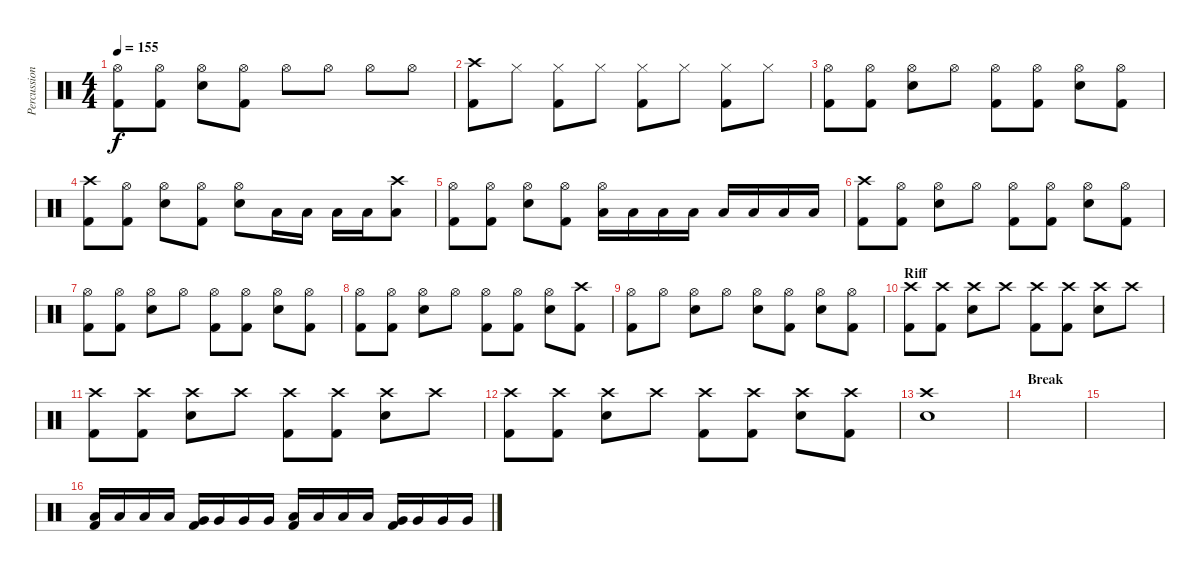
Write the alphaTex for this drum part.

\track ("Percussion" "Percussion") {instrument percussion}
\staff {score}
\articulation defaults
\ts (4 4)
\tempo 155
\clef neutral
\ks c
("Hi-Hat (open)" "Kick (hit) 2").8{dy f} ("Hi-Hat (open)" "Kick (hit) 2").8 ("Hi-Hat (open)" "Snare (hit) 2").8 ("Hi-Hat (open)" "Kick (hit) 2").8 "Hi-Hat (open)".8 "Hi-Hat (open)".8 "Hi-Hat (open)".8 "Hi-Hat (open)".8 |
("Crash high (hit)" "Kick (hit) 2").8 "Hi-Hat (closed)".8 ("Hi-Hat (closed)" "Kick (hit) 2").8 "Hi-Hat (closed)".8 ("Hi-Hat (closed)" "Kick (hit) 2").8 "Hi-Hat (closed)".8 ("Hi-Hat (closed)" "Kick (hit) 2").8 "Hi-Hat (closed)".8 |
("Hi-Hat (open)" "Kick (hit) 2").8 ("Hi-Hat (open)" "Kick (hit) 2").8 ("Hi-Hat (open)" "Snare (hit) 2").8 "Hi-Hat (open)".8 ("Hi-Hat (open)" "Kick (hit) 2").8 ("Hi-Hat (open)" "Kick (hit) 2").8 ("Hi-Hat (open)" "Snare (hit) 2").8 ("Hi-Hat (open)" "Kick (hit) 2").8 |
("Crash high (hit)" "Kick (hit) 2").8 ("Hi-Hat (open)" "Kick (hit) 2").8 ("Hi-Hat (open)" "Snare (hit) 2").8 ("Hi-Hat (open)" "Kick (hit) 2").8 ("Hi-Hat (open)" "Snare (hit) 2").8 "Low Tom (hit)".16 "Low Tom (hit)".16 "Low Tom (hit)".16 "Low Tom (hit)".16 ("Crash high (hit)" "Low Tom (hit)").8 |
("Hi-Hat (open)" "Kick (hit) 2").8 ("Hi-Hat (open)" "Kick (hit) 2").8 ("Hi-Hat (open)" "Snare (hit) 2").8 ("Hi-Hat (open)" "Kick (hit) 2").8 ("Hi-Hat (open)" "Low Tom (hit)").16 "Low Tom (hit)".16 "Low Tom (hit)".16 "Low Tom (hit)".16 "Low Tom (hit)".16 "Low Tom (hit)".16 "Low Tom (hit)".16 "Low Tom (hit)".16 |
("Crash high (hit)" "Kick (hit) 2").8 ("Hi-Hat (open)" "Kick (hit) 2").8 ("Hi-Hat (open)" "Snare (hit) 2").8 "Hi-Hat (open)".8 ("Hi-Hat (open)" "Kick (hit) 2").8 ("Hi-Hat (open)" "Kick (hit) 2").8 ("Hi-Hat (open)" "Snare (hit) 2").8 ("Hi-Hat (open)" "Kick (hit) 2").8 |
("Hi-Hat (open)" "Kick (hit) 2").8 ("Hi-Hat (open)" "Kick (hit) 2").8 ("Hi-Hat (open)" "Snare (hit) 2").8 "Hi-Hat (open)".8 ("Hi-Hat (open)" "Kick (hit) 2").8 ("Hi-Hat (open)" "Kick (hit) 2").8 ("Hi-Hat (open)" "Snare (hit) 2").8 ("Hi-Hat (open)" "Kick (hit) 2").8 |
("Hi-Hat (open)" "Kick (hit) 2").8 ("Hi-Hat (open)" "Kick (hit) 2").8 ("Hi-Hat (open)" "Snare (hit) 2").8 "Hi-Hat (open)".8 ("Hi-Hat (open)" "Kick (hit) 2").8 ("Hi-Hat (open)" "Kick (hit) 2").8 ("Hi-Hat (open)" "Snare (hit) 2").8 ("Crash high (hit)" "Kick (hit) 2").8 |
("Hi-Hat (open)" "Kick (hit) 2").8 "Hi-Hat (open)".8 ("Hi-Hat (open)" "Snare (hit) 2").8 "Hi-Hat (open)".8 ("Hi-Hat (open)" "Snare (hit) 2").8 ("Hi-Hat (open)" "Kick (hit) 2").8 ("Hi-Hat (open)" "Snare (hit) 2").8 ("Hi-Hat (open)" "Kick (hit) 2").8 |
\section ("" "Riff")
("Crash high (hit)" "Kick (hit) 2").8 ("Crash high (hit)" "Kick (hit) 2").8 ("Crash high (hit)" "Snare (hit) 2").8 "Crash high (hit)".8 ("Crash high (hit)" "Kick (hit) 2").8 ("Crash high (hit)" "Kick (hit) 2").8 ("Crash high (hit)" "Snare (hit) 2").8 "Crash high (hit)".8 |
("Crash high (hit)" "Kick (hit) 2").8 ("Crash high (hit)" "Kick (hit) 2").8 ("Crash high (hit)" "Snare (hit) 2").8 "Crash high (hit)".8 ("Crash high (hit)" "Kick (hit) 2").8 ("Crash high (hit)" "Kick (hit) 2").8 ("Crash high (hit)" "Snare (hit) 2").8 "Crash high (hit)".8 |
("Crash high (hit)" "Kick (hit) 2").8 ("Crash high (hit)" "Kick (hit) 2").8 ("Crash high (hit)" "Snare (hit) 2").8 "Crash high (hit)".8 ("Crash high (hit)" "Kick (hit) 2").8 ("Crash high (hit)" "Kick (hit) 2").8 ("Crash high (hit)" "Snare (hit) 2").8 ("Crash high (hit)" "Kick (hit) 2").8 |
("Crash high (hit)" "Snare (hit) 2").1 |
\section ("" "Break")
|
|
("Low Tom (hit)" "Kick (hit) 2").16 "Low Tom (hit)".16 "Low Tom (hit)".16 "Low Tom (hit)".16 ("Very Low Tom (hit)" "Kick (hit) 2").16 "Very Low Tom (hit)".16 "Very Low Tom (hit)".16 "Very Low Tom (hit)".16 ("Low Tom (hit)" "Kick (hit) 2").16 "Low Tom (hit)".16 "Low Tom (hit)".16 "Low Tom (hit)".16 ("Very Low Tom (hit)" "Kick (hit) 2").16 "Very Low Tom (hit)".16 "Very Low Tom (hit)".16 "Very Low Tom (hit)".16
